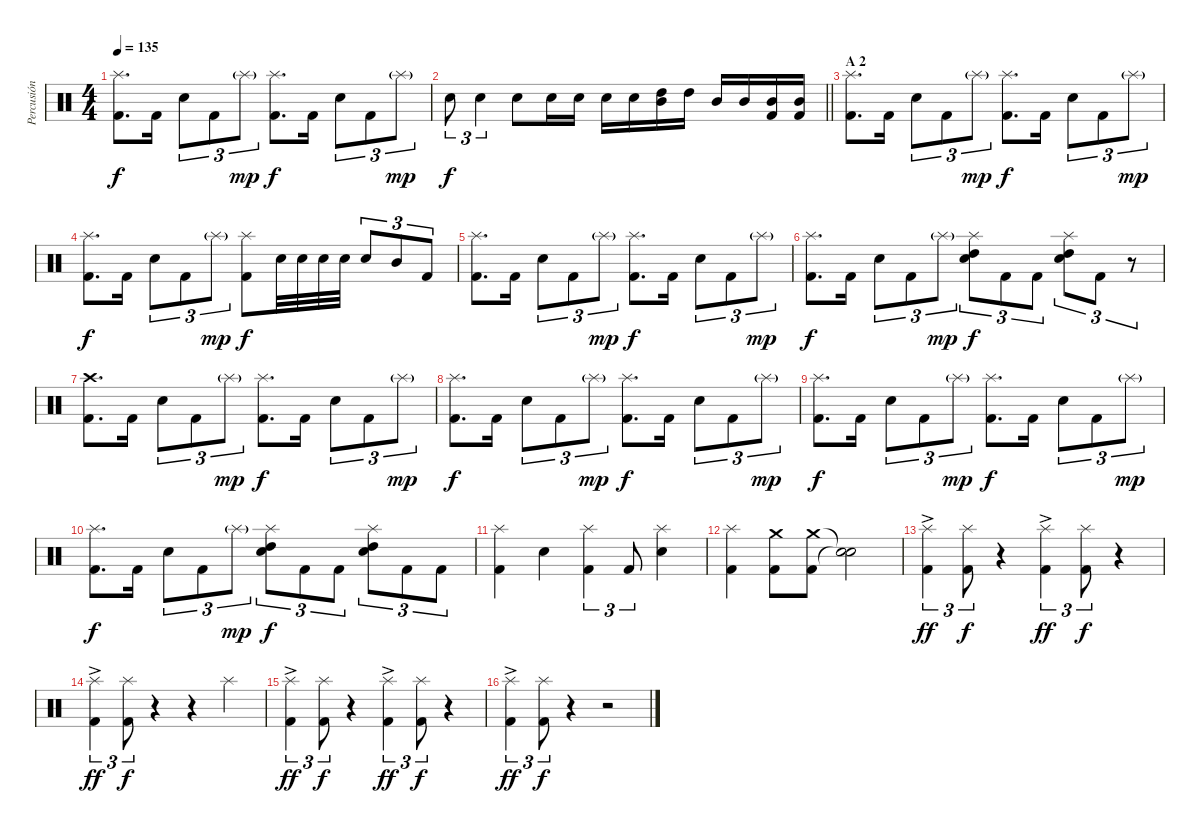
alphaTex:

\track ("Percusión" "Percusión") {instrument percussion}
\staff {score}
\articulation defaults
\ts (4 4)
\tempo 135
\clef neutral
\ks c
("Splash (hit)" "Kick (hit) 2").8{d dy f} "Kick (hit) 2".16 "Snare (hit) 2".8{tu (3 2)} "Kick (hit) 2".8{tu (3 2)} "Splash (hit)"{g}.8{tu (3 2) dy mp} ("Splash (hit)" "Kick (hit) 2").8{d dy f} "Kick (hit) 2".16 "Snare (hit) 2".8{tu (3 2)} "Kick (hit) 2".8{tu (3 2)} "Splash (hit)"{g}.8{tu (3 2) dy mp} |
\barLineRight lightlight "Snare (hit) 2".8{tu (3 2) dy f} "Snare (hit) 2".4{tu (3 2)} "Snare (hit) 2".8 "Snare (hit) 2".16 "Snare (hit) 2".16 "Snare (hit) 2".16 "Snare (hit) 2".16
("High Tom (hit)" "Mid Tom (hit)").16 "High Tom (hit)".16 "Mid Tom (hit)".16 "Mid Tom (hit)".16 ("Mid Tom (hit)" "Kick (hit) 2").16 ("Mid Tom (hit)" "Kick (hit) 2").16 |
\section ("" "A 2")
("Splash (hit)" "Kick (hit) 2").8{d} "Kick (hit) 2".16 "Snare (hit) 2".8{tu (3 2)} "Kick (hit) 2".8{tu (3 2)} "Splash (hit)"{g}.8{tu (3 2) dy mp} ("Splash (hit)" "Kick (hit) 2").8{d dy f} "Kick (hit) 2".16 "Snare (hit) 2".8{tu (3 2)} "Kick (hit) 2".8{tu (3 2)} "Splash (hit)"{g}.8{tu (3 2) dy mp} |
("Splash (hit)" "Kick (hit) 2").8{d dy f} "Kick (hit) 2".16 "Snare (hit) 2".8{tu (3 2)} "Kick (hit) 2".8{tu (3 2)} "Splash (hit)"{g}.8{tu (3 2) dy mp} ("Splash (hit)" "Kick (hit) 2").8{dy f} "Snare (hit) 2".32 "Snare (hit) 2".32 "Snare (hit) 2".32 "Snare (hit) 2".32 "Snare (hit) 2".8{tu (3 2)} "Mid Tom (hit)".8{tu (3 2)} "Kick (hit) 2".8{tu (3 2)} |
("Splash (hit)" "Kick (hit) 2").8{d} "Kick (hit) 2".16 "Snare (hit) 2".8{tu (3 2)} "Kick (hit) 2".8{tu (3 2)} "Splash (hit)"{g}.8{tu (3 2) dy mp} ("Splash (hit)" "Kick (hit) 2").8{d dy f} "Kick (hit) 2".16 "Snare (hit) 2".8{tu (3 2)} "Kick (hit) 2".8{tu (3 2)} "Splash (hit)"{g}.8{tu (3 2) dy mp} |
("Splash (hit)" "Kick (hit) 2").8{d dy f} "Kick (hit) 2".16 "Snare (hit) 2".8{tu (3 2)} "Kick (hit) 2".8{tu (3 2)} "Splash (hit)"{g}.8{tu (3 2) dy mp} ("Splash (hit)" "High Tom (hit)" "Snare (hit) 2").8{tu (3 2) dy f} "Kick (hit) 2".8{tu (3 2)} "Kick (hit) 2".8{tu (3 2)} ("Splash (hit)" "High Tom (hit)" "Snare (hit) 2").8{tu (3 2)} "Kick (hit) 2".8{tu (3 2)} r.8{tu (3 2)} |
("Crash high (hit)" "Kick (hit) 2").8{d} "Kick (hit) 2".16 "Snare (hit) 2".8{tu (3 2)} "Kick (hit) 2".8{tu (3 2)} "Splash (hit)"{g}.8{tu (3 2) dy mp} ("Splash (hit)" "Kick (hit) 2").8{d dy f} "Kick (hit) 2".16 "Snare (hit) 2".8{tu (3 2)} "Kick (hit) 2".8{tu (3 2)} "Splash (hit)"{g}.8{tu (3 2) dy mp} |
("Splash (hit)" "Kick (hit) 2").8{d dy f} "Kick (hit) 2".16 "Snare (hit) 2".8{tu (3 2)} "Kick (hit) 2".8{tu (3 2)} "Splash (hit)"{g}.8{tu (3 2) dy mp} ("Splash (hit)" "Kick (hit) 2").8{d dy f} "Kick (hit) 2".16 "Snare (hit) 2".8{tu (3 2)} "Kick (hit) 2".8{tu (3 2)} "Splash (hit)"{g}.8{tu (3 2) dy mp} |
("Splash (hit)" "Kick (hit) 2").8{d dy f} "Kick (hit) 2".16 "Snare (hit) 2".8{tu (3 2)} "Kick (hit) 2".8{tu (3 2)} "Splash (hit)"{g}.8{tu (3 2) dy mp} ("Splash (hit)" "Kick (hit) 2").8{d dy f} "Kick (hit) 2".16 "Snare (hit) 2".8{tu (3 2)} "Kick (hit) 2".8{tu (3 2)} "Splash (hit)"{g}.8{tu (3 2) dy mp} |
("Splash (hit)" "Kick (hit) 2").8{d dy f} "Kick (hit) 2".16 "Snare (hit) 2".8{tu (3 2)} "Kick (hit) 2".8{tu (3 2)} "Splash (hit)"{g}.8{tu (3 2) dy mp} ("Splash (hit)" "High Tom (hit)" "Snare (hit) 2").8{tu (3 2) dy f} "Kick (hit) 2".8{tu (3 2)} "Kick (hit) 2".8{tu (3 2)} ("Splash (hit)" "High Tom (hit)" "Snare (hit) 2").8{tu (3 2)} "Kick (hit) 2".8{tu (3 2)} "Kick (hit) 2".8{tu (3 2)} |
("Splash (hit)" "Kick (hit) 2").4 "Snare (hit) 2".4 ("Splash (hit)" "Kick (hit) 2").4{tu (3 2)} "Kick (hit) 2".8{tu (3 2)} ("Splash (hit)" "Snare (hit) 2").4 |
("Splash (hit)" "Kick (hit) 2").4 ("Crash medium (hit)" "Kick (hit) 2").8 ("Crash medium (hit)" "Kick (hit) 2").8 ("Snare (hit)"{t} "Snare (hit)"{t}).2 |
("Splash (hit)"{ac} "Kick (hit) 2"{ac}).4{tu (3 2) dy ff} ("Splash (hit)" "Kick (hit) 2").8{tu (3 2) dy f} r.4 ("Splash (hit)"{ac} "Kick (hit) 2"{ac}).4{tu (3 2) dy ff} ("Splash (hit)" "Kick (hit) 2").8{tu (3 2) dy f} r.4 |
("Splash (hit)"{ac} "Kick (hit) 2"{ac}).4{tu (3 2) dy ff} ("Splash (hit)" "Kick (hit) 2").8{tu (3 2) dy f} r.4 r.4 "Splash (hit)".4 |
("Splash (hit)"{ac} "Kick (hit) 2"{ac}).4{tu (3 2) dy ff} ("Splash (hit)" "Kick (hit) 2").8{tu (3 2) dy f} r.4 ("Splash (hit)"{ac} "Kick (hit) 2"{ac}).4{tu (3 2) dy ff} ("Splash (hit)" "Kick (hit) 2").8{tu (3 2) dy f} r.4 |
("Splash (hit)"{ac} "Kick (hit) 2"{ac}).4{tu (3 2) dy ff} ("Splash (hit)" "Kick (hit) 2").8{tu (3 2) dy f} r.4 r.2
